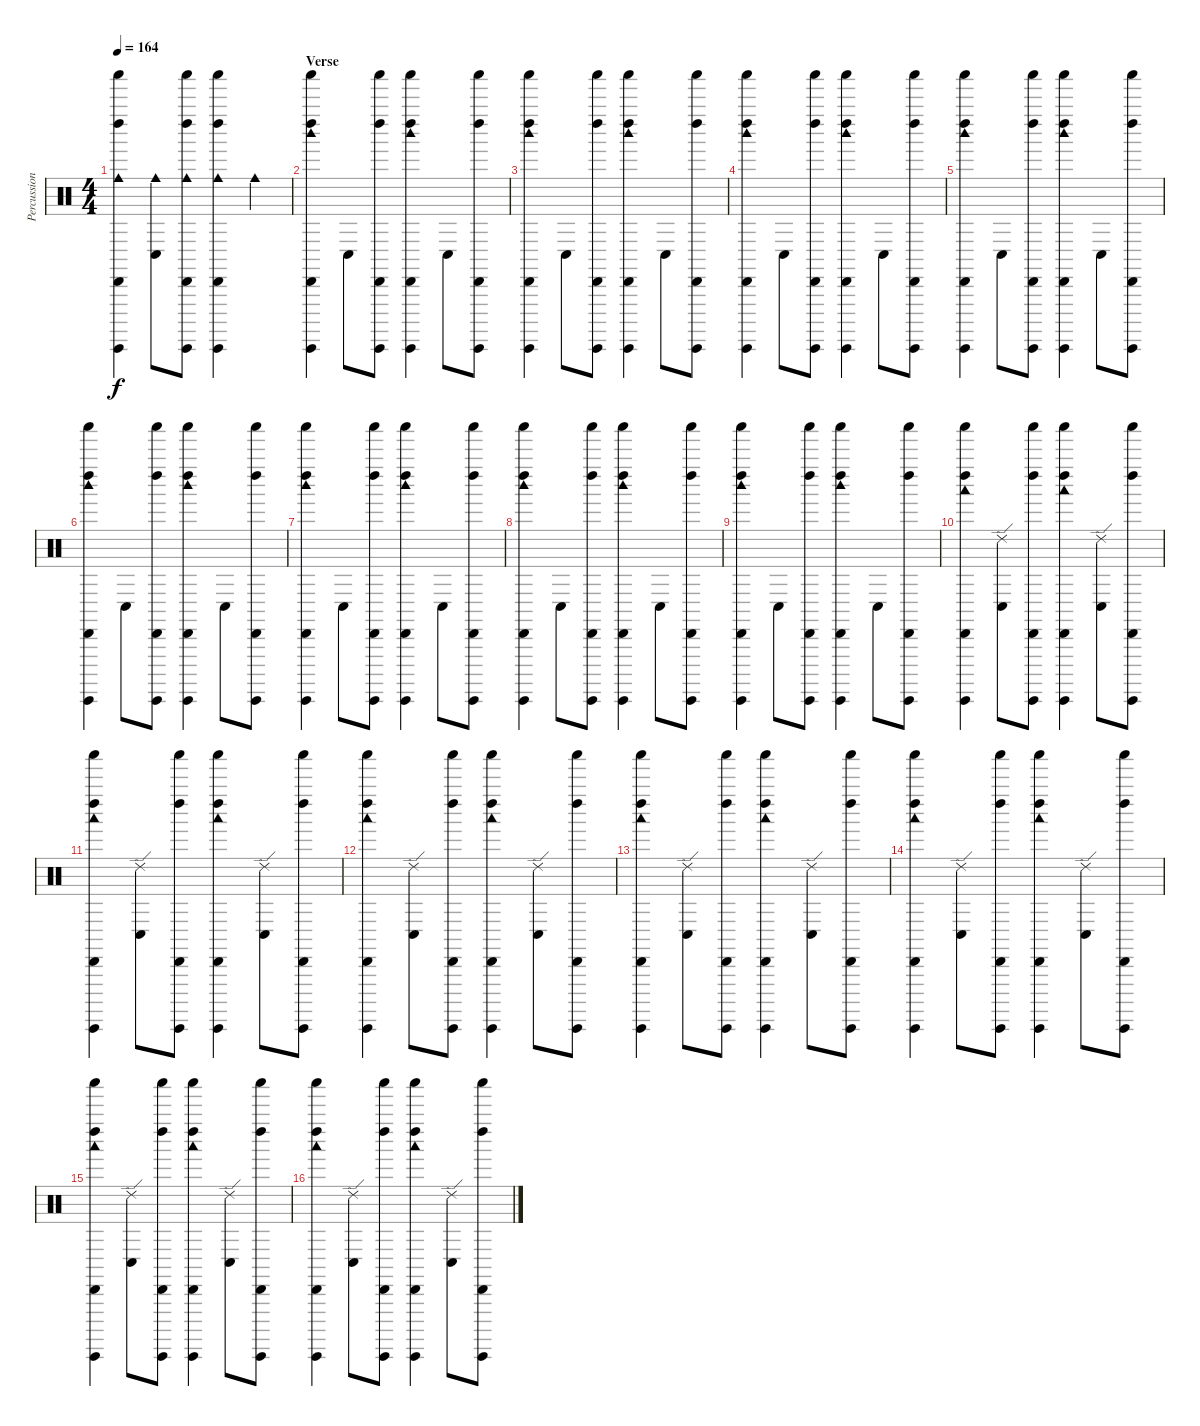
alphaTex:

\track ("Percussion" "Percussion") {instrument percussion}
\staff {score}
\articulation defaults
\ts (4 4)
\tempo 164
\clef neutral
\ks c
("Shaker (hit)" "Guiro (hit)" "Left Maraca (hit)" "Cabasa (hit)" "Cowbell medium (hit)").4{dy f} ("Conga low (hit)" "Cowbell medium (hit)").8 ("Shaker (hit)" "Guiro (hit)" "Left Maraca (hit)" "Cabasa (hit)" "Cowbell medium (hit)").8 ("Shaker (hit)" "Guiro (hit)" "Left Maraca (hit)" "Cabasa (hit)" "Cowbell medium (hit)").4 "Cowbell medium (hit)".4 |
\section ("" "Verse")
("Shaker (hit)" "Guiro (hit)" "Left Maraca (hit)" "Cabasa (hit)" "Woodblock high (hit)").4 "Conga low (hit)".8 ("Shaker (hit)" "Guiro (hit)" "Left Maraca (hit)" "Cabasa (hit)").8 ("Shaker (hit)" "Guiro (hit)" "Left Maraca (hit)" "Cabasa (hit)" "Woodblock high (hit)").4 "Conga low (hit)".8 ("Shaker (hit)" "Guiro (hit)" "Left Maraca (hit)" "Cabasa (hit)").8 |
("Shaker (hit)" "Guiro (hit)" "Left Maraca (hit)" "Cabasa (hit)" "Woodblock high (hit)").4 "Conga low (hit)".8 ("Shaker (hit)" "Guiro (hit)" "Left Maraca (hit)" "Cabasa (hit)").8 ("Shaker (hit)" "Guiro (hit)" "Left Maraca (hit)" "Cabasa (hit)" "Woodblock high (hit)").4 "Conga low (hit)".8 ("Shaker (hit)" "Guiro (hit)" "Left Maraca (hit)" "Cabasa (hit)").8 |
("Shaker (hit)" "Guiro (hit)" "Left Maraca (hit)" "Cabasa (hit)" "Woodblock high (hit)").4 "Conga low (hit)".8 ("Shaker (hit)" "Guiro (hit)" "Left Maraca (hit)" "Cabasa (hit)").8 ("Shaker (hit)" "Guiro (hit)" "Left Maraca (hit)" "Cabasa (hit)" "Woodblock high (hit)").4 "Conga low (hit)".8 ("Shaker (hit)" "Guiro (hit)" "Left Maraca (hit)" "Cabasa (hit)").8 |
("Shaker (hit)" "Guiro (hit)" "Left Maraca (hit)" "Cabasa (hit)" "Woodblock high (hit)").4 "Conga low (hit)".8 ("Shaker (hit)" "Guiro (hit)" "Left Maraca (hit)" "Cabasa (hit)").8 ("Shaker (hit)" "Guiro (hit)" "Left Maraca (hit)" "Cabasa (hit)" "Woodblock high (hit)").4 "Conga low (hit)".8 ("Shaker (hit)" "Guiro (hit)" "Left Maraca (hit)" "Cabasa (hit)").8 |
("Shaker (hit)" "Guiro (hit)" "Left Maraca (hit)" "Cabasa (hit)" "Woodblock high (hit)").4 "Conga low (hit)".8 ("Shaker (hit)" "Guiro (hit)" "Left Maraca (hit)" "Cabasa (hit)").8 ("Shaker (hit)" "Guiro (hit)" "Left Maraca (hit)" "Cabasa (hit)" "Woodblock high (hit)").4 "Conga low (hit)".8 ("Shaker (hit)" "Guiro (hit)" "Left Maraca (hit)" "Cabasa (hit)").8 |
("Shaker (hit)" "Guiro (hit)" "Left Maraca (hit)" "Cabasa (hit)" "Woodblock high (hit)").4 "Conga low (hit)".8 ("Shaker (hit)" "Guiro (hit)" "Left Maraca (hit)" "Cabasa (hit)").8 ("Shaker (hit)" "Guiro (hit)" "Left Maraca (hit)" "Cabasa (hit)" "Woodblock high (hit)").4 "Conga low (hit)".8 ("Shaker (hit)" "Guiro (hit)" "Left Maraca (hit)" "Cabasa (hit)").8 |
("Shaker (hit)" "Guiro (hit)" "Left Maraca (hit)" "Cabasa (hit)" "Woodblock high (hit)").4 "Conga low (hit)".8 ("Shaker (hit)" "Guiro (hit)" "Left Maraca (hit)" "Cabasa (hit)").8 ("Shaker (hit)" "Guiro (hit)" "Left Maraca (hit)" "Cabasa (hit)" "Woodblock high (hit)").4 "Conga low (hit)".8 ("Shaker (hit)" "Guiro (hit)" "Left Maraca (hit)" "Cabasa (hit)").8 |
("Shaker (hit)" "Guiro (hit)" "Left Maraca (hit)" "Cabasa (hit)" "Woodblock high (hit)").4 "Conga low (hit)".8 ("Shaker (hit)" "Guiro (hit)" "Left Maraca (hit)" "Cabasa (hit)").8 ("Shaker (hit)" "Guiro (hit)" "Left Maraca (hit)" "Cabasa (hit)" "Woodblock high (hit)").4 "Conga low (hit)".8 ("Shaker (hit)" "Guiro (hit)" "Left Maraca (hit)" "Cabasa (hit)").8 |
("Shaker (hit)" "Guiro (hit)" "Left Maraca (hit)" "Cabasa (hit)" "Woodblock low (hit)").4 ("Ride (edge) 2" "Conga low (hit)").8 ("Shaker (hit)" "Guiro (hit)" "Left Maraca (hit)" "Cabasa (hit)").8 ("Shaker (hit)" "Guiro (hit)" "Left Maraca (hit)" "Cabasa (hit)" "Woodblock low (hit)").4 ("Ride (edge) 2" "Conga low (hit)").8 ("Shaker (hit)" "Guiro (hit)" "Left Maraca (hit)" "Cabasa (hit)").8 |
("Shaker (hit)" "Guiro (hit)" "Left Maraca (hit)" "Cabasa (hit)" "Woodblock low (hit)").4 ("Ride (edge) 2" "Conga low (hit)").8 ("Shaker (hit)" "Guiro (hit)" "Left Maraca (hit)" "Cabasa (hit)").8 ("Shaker (hit)" "Guiro (hit)" "Left Maraca (hit)" "Cabasa (hit)" "Woodblock low (hit)").4 ("Ride (edge) 2" "Conga low (hit)").8 ("Shaker (hit)" "Guiro (hit)" "Left Maraca (hit)" "Cabasa (hit)").8 |
("Shaker (hit)" "Guiro (hit)" "Left Maraca (hit)" "Cabasa (hit)" "Woodblock low (hit)").4 ("Ride (edge) 2" "Conga low (hit)").8 ("Shaker (hit)" "Guiro (hit)" "Left Maraca (hit)" "Cabasa (hit)").8 ("Shaker (hit)" "Guiro (hit)" "Left Maraca (hit)" "Cabasa (hit)" "Woodblock low (hit)").4 ("Ride (edge) 2" "Conga low (hit)").8 ("Shaker (hit)" "Guiro (hit)" "Left Maraca (hit)" "Cabasa (hit)").8 |
("Shaker (hit)" "Guiro (hit)" "Left Maraca (hit)" "Cabasa (hit)" "Woodblock low (hit)").4 ("Ride (edge) 2" "Conga low (hit)").8 ("Shaker (hit)" "Guiro (hit)" "Left Maraca (hit)" "Cabasa (hit)").8 ("Shaker (hit)" "Guiro (hit)" "Left Maraca (hit)" "Cabasa (hit)" "Woodblock low (hit)").4 ("Ride (edge) 2" "Conga low (hit)").8 ("Shaker (hit)" "Guiro (hit)" "Left Maraca (hit)" "Cabasa (hit)").8 |
("Shaker (hit)" "Guiro (hit)" "Left Maraca (hit)" "Cabasa (hit)" "Woodblock low (hit)").4 ("Ride (edge) 2" "Conga low (hit)").8 ("Shaker (hit)" "Guiro (hit)" "Left Maraca (hit)" "Cabasa (hit)").8 ("Shaker (hit)" "Guiro (hit)" "Left Maraca (hit)" "Cabasa (hit)" "Woodblock low (hit)").4 ("Ride (edge) 2" "Conga low (hit)").8 ("Shaker (hit)" "Guiro (hit)" "Left Maraca (hit)" "Cabasa (hit)").8 |
("Shaker (hit)" "Guiro (hit)" "Left Maraca (hit)" "Cabasa (hit)" "Woodblock low (hit)").4 ("Ride (edge) 2" "Conga low (hit)").8 ("Shaker (hit)" "Guiro (hit)" "Left Maraca (hit)" "Cabasa (hit)").8 ("Shaker (hit)" "Guiro (hit)" "Left Maraca (hit)" "Cabasa (hit)" "Woodblock low (hit)").4 ("Ride (edge) 2" "Conga low (hit)").8 ("Shaker (hit)" "Guiro (hit)" "Left Maraca (hit)" "Cabasa (hit)").8 |
("Shaker (hit)" "Guiro (hit)" "Left Maraca (hit)" "Cabasa (hit)" "Woodblock low (hit)").4 ("Ride (edge) 2" "Conga low (hit)").8 ("Shaker (hit)" "Guiro (hit)" "Left Maraca (hit)" "Cabasa (hit)").8 ("Shaker (hit)" "Guiro (hit)" "Left Maraca (hit)" "Cabasa (hit)" "Woodblock low (hit)").4 ("Ride (edge) 2" "Conga low (hit)").8 ("Shaker (hit)" "Guiro (hit)" "Left Maraca (hit)" "Cabasa (hit)").8
